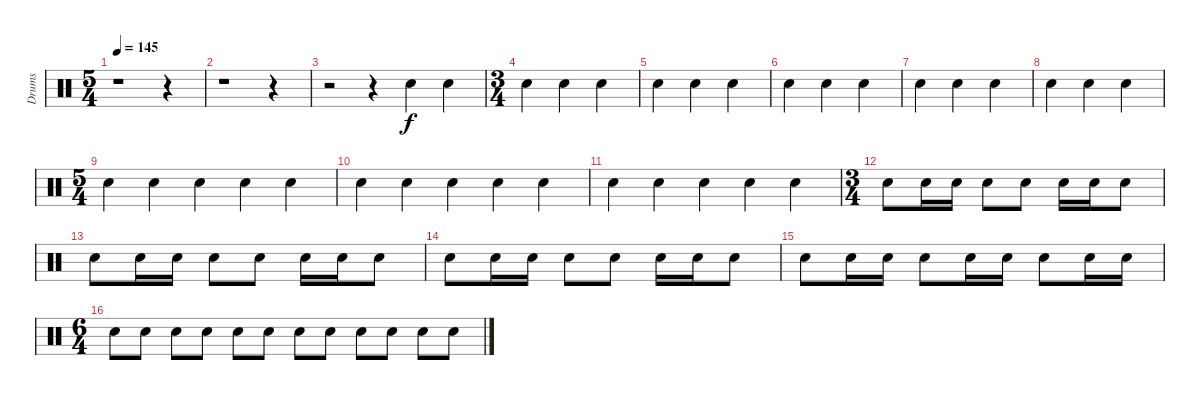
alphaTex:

\track ("Drums" "Drums") {instrument percussion}
\staff {score}
\articulation defaults
\ts (5 4)
\tempo 145
\clef neutral
\ks aminor
r.1{dy f} r.4 |
r.1 r.4 |
r.2 r.4 "Hand Clap (hit)".4 "Hand Clap (hit)".4 |
\ts (3 4)
"Hand Clap (hit)".4 "Hand Clap (hit)".4 "Hand Clap (hit)".4 |
"Hand Clap (hit)".4 "Hand Clap (hit)".4 "Hand Clap (hit)".4 |
"Hand Clap (hit)".4 "Hand Clap (hit)".4 "Hand Clap (hit)".4 |
"Hand Clap (hit)".4 "Hand Clap (hit)".4 "Hand Clap (hit)".4 |
"Hand Clap (hit)".4 "Hand Clap (hit)".4 "Hand Clap (hit)".4 |
\ts (5 4)
"Hand Clap (hit)".4 "Hand Clap (hit)".4 "Hand Clap (hit)".4 "Hand Clap (hit)".4 "Hand Clap (hit)".4 |
"Hand Clap (hit)".4 "Hand Clap (hit)".4 "Hand Clap (hit)".4 "Hand Clap (hit)".4 "Hand Clap (hit)".4 |
"Hand Clap (hit)".4 "Hand Clap (hit)".4 "Hand Clap (hit)".4 "Hand Clap (hit)".4 "Hand Clap (hit)".4 |
\ts (3 4)
"Hand Clap (hit)".8 "Hand Clap (hit)".16 "Hand Clap (hit)".16 "Hand Clap (hit)".8 "Hand Clap (hit)".8 "Hand Clap (hit)".16 "Hand Clap (hit)".16 "Hand Clap (hit)".8 |
"Hand Clap (hit)".8 "Hand Clap (hit)".16 "Hand Clap (hit)".16 "Hand Clap (hit)".8 "Hand Clap (hit)".8 "Hand Clap (hit)".16 "Hand Clap (hit)".16 "Hand Clap (hit)".8 |
"Hand Clap (hit)".8 "Hand Clap (hit)".16 "Hand Clap (hit)".16 "Hand Clap (hit)".8 "Hand Clap (hit)".8 "Hand Clap (hit)".16 "Hand Clap (hit)".16 "Hand Clap (hit)".8 |
"Hand Clap (hit)".8 "Hand Clap (hit)".16 "Hand Clap (hit)".16 "Hand Clap (hit)".8 "Hand Clap (hit)".16 "Hand Clap (hit)".16 "Hand Clap (hit)".8 "Hand Clap (hit)".16 "Hand Clap (hit)".16 |
\ts (6 4)
"Hand Clap (hit)".8 "Hand Clap (hit)".8 "Hand Clap (hit)".8 "Hand Clap (hit)".8 "Hand Clap (hit)".8 "Hand Clap (hit)".8 "Hand Clap (hit)".8 "Hand Clap (hit)".8 "Hand Clap (hit)".8 "Hand Clap (hit)".8 "Hand Clap (hit)".8 "Hand Clap (hit)".8
